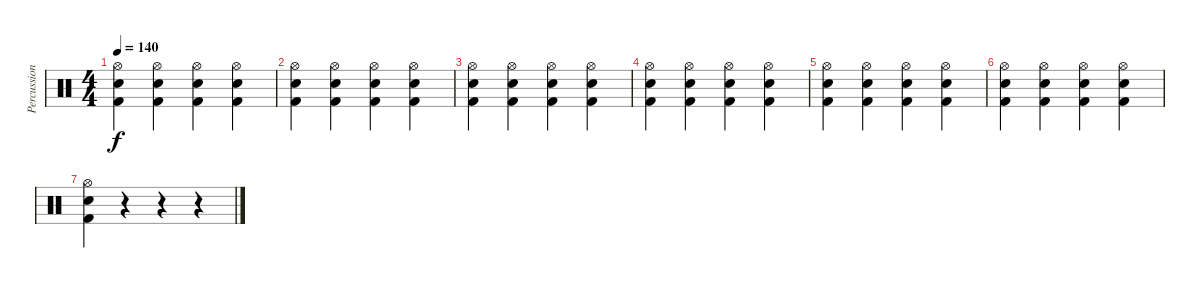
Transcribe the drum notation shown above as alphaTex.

\track ("Percussion" "Percussion") {instrument percussion}
\staff {score}
\articulation defaults
\ts (4 4)
\tempo 140
\clef neutral
\ks c
("Hi-Hat (open)" "Snare (hit) 2" "Kick (hit) 2").4{dy f} ("Hi-Hat (open)" "Snare (hit) 2" "Kick (hit) 2").4 ("Hi-Hat (open)" "Snare (hit) 2" "Kick (hit) 2").4 ("Hi-Hat (open)" "Snare (hit) 2" "Kick (hit) 2").4 |
("Hi-Hat (open)" "Snare (hit) 2" "Kick (hit) 2").4 ("Hi-Hat (open)" "Snare (hit) 2" "Kick (hit) 2").4 ("Hi-Hat (open)" "Snare (hit) 2" "Kick (hit) 2").4 ("Hi-Hat (open)" "Snare (hit) 2" "Kick (hit) 2").4 |
("Hi-Hat (open)" "Snare (hit) 2" "Kick (hit) 2").4 ("Hi-Hat (open)" "Snare (hit) 2" "Kick (hit) 2").4 ("Hi-Hat (open)" "Snare (hit) 2" "Kick (hit) 2").4 ("Hi-Hat (open)" "Snare (hit) 2" "Kick (hit) 2").4 |
("Hi-Hat (open)" "Snare (hit) 2" "Kick (hit) 2").4 ("Hi-Hat (open)" "Snare (hit) 2" "Kick (hit) 2").4 ("Hi-Hat (open)" "Snare (hit) 2" "Kick (hit) 2").4 ("Hi-Hat (open)" "Snare (hit) 2" "Kick (hit) 2").4 |
("Hi-Hat (open)" "Snare (hit) 2" "Kick (hit) 2").4 ("Hi-Hat (open)" "Snare (hit) 2" "Kick (hit) 2").4 ("Hi-Hat (open)" "Snare (hit) 2" "Kick (hit) 2").4 ("Hi-Hat (open)" "Snare (hit) 2" "Kick (hit) 2").4 |
("Hi-Hat (open)" "Snare (hit) 2" "Kick (hit) 2").4 ("Hi-Hat (open)" "Snare (hit) 2" "Kick (hit) 2").4 ("Hi-Hat (open)" "Snare (hit) 2" "Kick (hit) 2").4 ("Hi-Hat (open)" "Snare (hit) 2" "Kick (hit) 2").4 |
("Hi-Hat (open)" "Snare (hit) 2" "Kick (hit) 2").4 r.4 r.4 r.4
